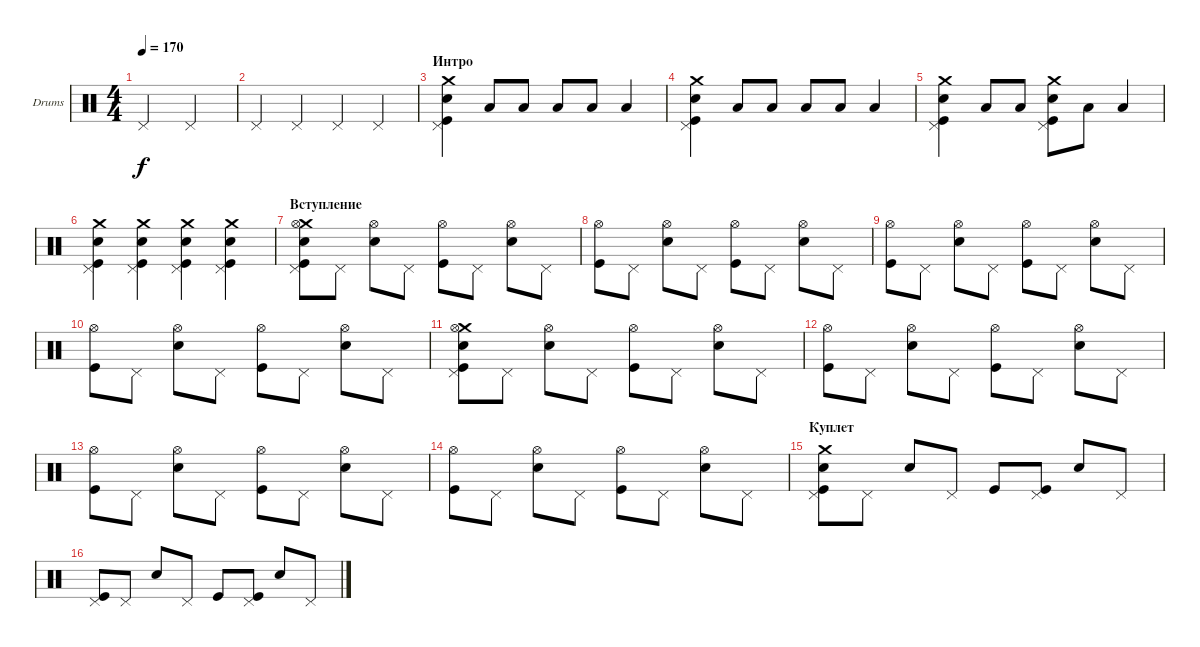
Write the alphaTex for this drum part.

\defaultSystemsLayout 4
\bracketExtendMode groupsimilarinstruments
\firstSystemTrackNameOrientation horizontal
\otherSystemsTrackNameOrientation horizontal
\track ("Е. Кулаков" "Drums") {instrument percussion}
\staff {score}
\articulation defaults
\ts (4 4)
\tempo 170
\clef neutral
\ks c "Pedal Hi-Hat (hit)".2{dy f} "Pedal Hi-Hat (hit)".2
|
"Pedal Hi-Hat (hit)".4 "Pedal Hi-Hat (hit)".4 "Pedal Hi-Hat (hit)".4 "Pedal Hi-Hat (hit)".4 |
\section ("" "Интро")
("Pedal Hi-Hat (hit)" "Kick (hit)" "Snare (hit) 2" "Crash medium (hit)").4 "Low Tom (hit)".8 "Low Tom (hit)".8 "Low Tom (hit)".8 "Low Tom (hit)".8 "Low Tom (hit)".4 |
("Pedal Hi-Hat (hit)" "Kick (hit)" "Snare (hit) 2" "Crash medium (hit)").4 "Low Tom (hit)".8 "Low Tom (hit)".8 "Low Tom (hit)".8 "Low Tom (hit)".8 "Low Tom (hit)".4 |
("Pedal Hi-Hat (hit)" "Kick (hit)" "Snare (hit) 2" "Crash medium (hit)").4 "Low Tom (hit)".8 "Low Tom (hit)".8 ("Kick (hit)" "Crash medium (hit)" "Snare (hit) 2" "Pedal Hi-Hat (hit)").8 "Low Tom (hit)".8 "Low Tom (hit)".4 |
("Pedal Hi-Hat (hit)" "Kick (hit)" "Snare (hit) 2" "Crash medium (hit)").4 ("Pedal Hi-Hat (hit)" "Kick (hit)" "Snare (hit) 2" "Crash medium (hit)").4 ("Pedal Hi-Hat (hit)" "Kick (hit)" "Snare (hit) 2" "Crash medium (hit)").4 ("Pedal Hi-Hat (hit)" "Kick (hit)" "Snare (hit) 2" "Crash medium (hit)").4 |
\section ("" "Вступление")
("Kick (hit)" "Snare (hit) 2" "Crash medium (hit)" "Pedal Hi-Hat (hit)" "Hi-Hat (open)").8 "Pedal Hi-Hat (hit)".8 ("Snare (hit) 2" "Hi-Hat (open)").8 "Pedal Hi-Hat (hit)".8 ("Kick (hit)" "Hi-Hat (open)").8 "Pedal Hi-Hat (hit)".8 ("Snare (hit) 2" "Hi-Hat (open)").8 "Pedal Hi-Hat (hit)".8 |
("Kick (hit)" "Hi-Hat (open)").8 "Pedal Hi-Hat (hit)".8 ("Snare (hit) 2" "Hi-Hat (open)").8 "Pedal Hi-Hat (hit)".8 ("Kick (hit)" "Hi-Hat (open)").8 "Pedal Hi-Hat (hit)".8 ("Snare (hit) 2" "Hi-Hat (open)").8 "Pedal Hi-Hat (hit)".8 |
("Kick (hit)" "Hi-Hat (open)").8 "Pedal Hi-Hat (hit)".8 ("Snare (hit) 2" "Hi-Hat (open)").8 "Pedal Hi-Hat (hit)".8 ("Kick (hit)" "Hi-Hat (open)").8 "Pedal Hi-Hat (hit)".8 ("Snare (hit) 2" "Hi-Hat (open)").8 "Pedal Hi-Hat (hit)".8 |
("Kick (hit)" "Hi-Hat (open)").8 "Pedal Hi-Hat (hit)".8 ("Snare (hit) 2" "Hi-Hat (open)").8 "Pedal Hi-Hat (hit)".8 ("Kick (hit)" "Hi-Hat (open)").8 "Pedal Hi-Hat (hit)".8 ("Snare (hit) 2" "Hi-Hat (open)").8 "Pedal Hi-Hat (hit)".8 |
("Kick (hit)" "Snare (hit) 2" "Crash medium (hit)" "Pedal Hi-Hat (hit)" "Hi-Hat (open)").8 "Pedal Hi-Hat (hit)".8 ("Snare (hit) 2" "Hi-Hat (open)").8 "Pedal Hi-Hat (hit)".8 ("Kick (hit)" "Hi-Hat (open)").8 "Pedal Hi-Hat (hit)".8 ("Snare (hit) 2" "Hi-Hat (open)").8 "Pedal Hi-Hat (hit)".8 |
("Kick (hit)" "Hi-Hat (open)").8 "Pedal Hi-Hat (hit)".8 ("Snare (hit) 2" "Hi-Hat (open)").8 "Pedal Hi-Hat (hit)".8 ("Kick (hit)" "Hi-Hat (open)").8 "Pedal Hi-Hat (hit)".8 ("Snare (hit) 2" "Hi-Hat (open)").8 "Pedal Hi-Hat (hit)".8 |
("Kick (hit)" "Hi-Hat (open)").8 "Pedal Hi-Hat (hit)".8 ("Snare (hit) 2" "Hi-Hat (open)").8 "Pedal Hi-Hat (hit)".8 ("Kick (hit)" "Hi-Hat (open)").8 "Pedal Hi-Hat (hit)".8 ("Snare (hit) 2" "Hi-Hat (open)").8 "Pedal Hi-Hat (hit)".8 |
("Kick (hit)" "Hi-Hat (open)").8 "Pedal Hi-Hat (hit)".8 ("Snare (hit) 2" "Hi-Hat (open)").8 "Pedal Hi-Hat (hit)".8 ("Kick (hit)" "Hi-Hat (open)").8 "Pedal Hi-Hat (hit)".8 ("Snare (hit) 2" "Hi-Hat (open)").8 "Pedal Hi-Hat (hit)".8 |
\section ("" "Куплет")
("Kick (hit)" "Snare (hit) 2" "Crash medium (hit)" "Pedal Hi-Hat (hit)").8 "Pedal Hi-Hat (hit)".8 "Snare (hit) 2".8 "Pedal Hi-Hat (hit)".8 "Kick (hit)".8 ("Kick (hit)" "Pedal Hi-Hat (hit)").8 "Snare (hit) 2".8 "Pedal Hi-Hat (hit)".8 |
("Kick (hit)" "Pedal Hi-Hat (hit)").8 "Pedal Hi-Hat (hit)".8 "Snare (hit) 2".8 "Pedal Hi-Hat (hit)".8 "Kick (hit)".8 ("Kick (hit)" "Pedal Hi-Hat (hit)").8 "Snare (hit) 2".8 "Pedal Hi-Hat (hit)".8
